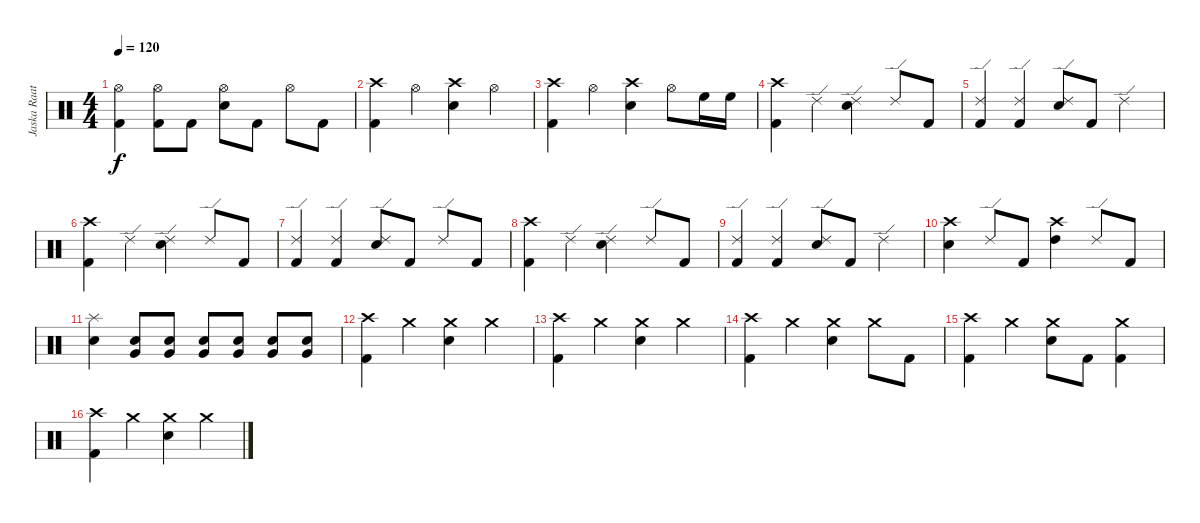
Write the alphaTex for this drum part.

\track ("Jaska Raatikainen" "Jaska Raat") {instrument percussion}
\staff {score}
\articulation defaults
\ts (4 4)
\tempo 120
\clef neutral
\ks c
("Hi-Hat (open)" "Kick (hit) 2").4{dy f} ("Hi-Hat (open)" "Kick (hit) 2").8 "Kick (hit) 2".8 ("Hi-Hat (open)" "Snare (hit) 2").8 "Kick (hit) 2".8 "Hi-Hat (open)".8 "Kick (hit) 2".8 |
("Crash high (hit)" "Kick (hit) 2").4 "Hi-Hat (open)".4 ("Crash high (hit)" "Snare (hit) 2").4 "Hi-Hat (open)".4 |
("Crash high (hit)" "Kick (hit) 2").4 "Hi-Hat (open)".4 ("Crash high (hit)" "Snare (hit) 2").4 "Hi-Hat (open)".8 "High Floor Tom (hit)".16 "High Floor Tom (hit)".16 |
("Crash high (hit)" "Kick (hit) 2").4 "Ride (edge) 2".4 ("Ride (edge) 2" "Snare (hit) 2").4 "Ride (edge) 2".8 "Kick (hit) 2".8 |
("Ride (edge) 2" "Kick (hit) 2").4 ("Ride (edge) 2" "Kick (hit) 2").4 ("Ride (edge) 2" "Snare (hit) 2").8 "Kick (hit) 2".8 "Ride (edge) 2".4 |
("Crash high (hit)" "Kick (hit) 2").4 "Ride (edge) 2".4 ("Ride (edge) 2" "Snare (hit) 2").4 "Ride (edge) 2".8 "Kick (hit) 2".8 |
("Ride (edge) 2" "Kick (hit) 2").4 ("Ride (edge) 2" "Kick (hit) 2").4 ("Ride (edge) 2" "Snare (hit) 2").8 "Kick (hit) 2".8 "Ride (edge) 2".8 "Kick (hit) 2".8 |
("Crash high (hit)" "Kick (hit) 2").4 "Ride (edge) 2".4 ("Ride (edge) 2" "Snare (hit) 2").4 "Ride (edge) 2".8 "Kick (hit) 2".8 |
("Ride (edge) 2" "Kick (hit) 2").4 ("Ride (edge) 2" "Kick (hit) 2").4 ("Ride (edge) 2" "Snare (hit) 2").8 "Kick (hit) 2".8 "Ride (edge) 2".4 |
("Crash high (hit)" "Snare (hit) 2").4 "Ride (edge) 2".8 "Kick (hit) 2".8 ("Crash high (hit)" "High Tom (hit)").4 "Ride (edge) 2".8 "Kick (hit) 2".8 |
("Splash (hit)" "Snare (hit) 2").4 ("Very Low Tom (hit)" "Snare (hit) 2").8 ("Very Low Tom (hit)" "Snare (hit) 2").8 ("Very Low Tom (hit)" "Snare (hit) 2").8 ("Very Low Tom (hit)" "Snare (hit) 2").8 ("Very Low Tom (hit)" "Snare (hit) 2").8 ("Very Low Tom (hit)" "Snare (hit) 2").8 |
("Crash high (hit)" "Kick (hit) 2").4 "Crash medium (hit)".4 ("Crash medium (hit)" "Snare (hit) 2").4 "Crash medium (hit)".4 |
("Crash high (hit)" "Kick (hit) 2").4 "Crash medium (hit)".4 ("Crash medium (hit)" "Snare (hit) 2").4 "Crash medium (hit)".4 |
("Crash high (hit)" "Kick (hit) 2").4 "Crash medium (hit)".4 ("Crash medium (hit)" "Snare (hit) 2").4 "Crash medium (hit)".8 "Kick (hit) 2".8 |
("Crash high (hit)" "Kick (hit) 2").4 "Crash medium (hit)".4 ("Crash medium (hit)" "Snare (hit) 2").8 "Kick (hit) 2".8 ("Crash medium (hit)" "Kick (hit) 2").4 |
("Crash high (hit)" "Kick (hit) 2").4 "Crash medium (hit)".4 ("Crash medium (hit)" "Snare (hit) 2").4 "Crash medium (hit)".4
